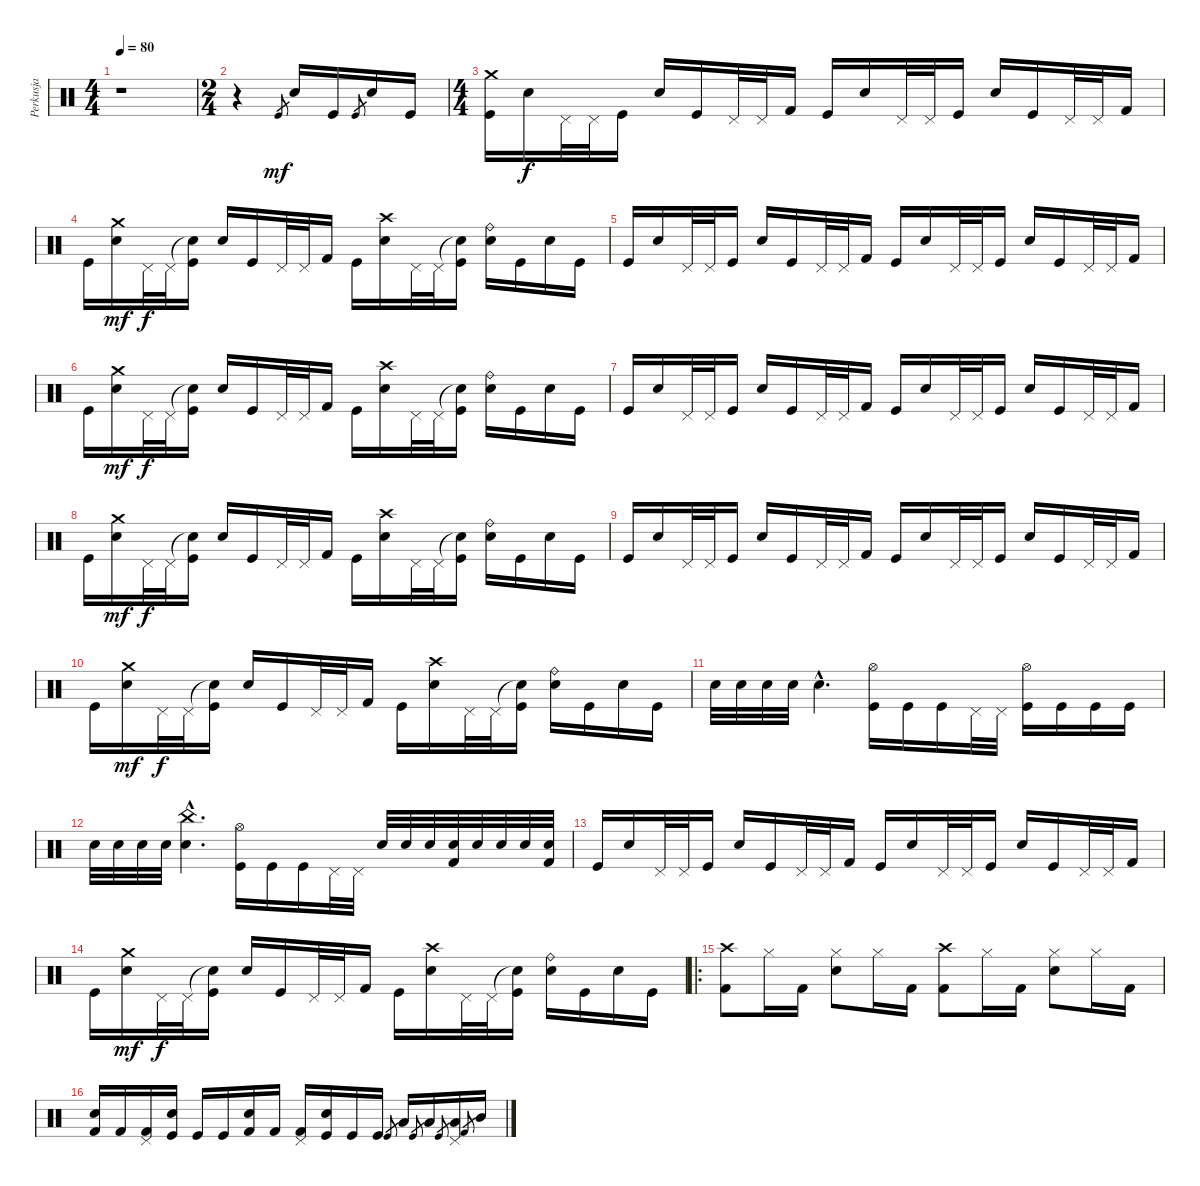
\track ("Perkusja" "Perkusja") {instrument percussion}
\staff {score}
\articulation defaults
\ts (4 4)
\tempo 80
\clef neutral
\ks c
r.1{dy mf} |
\ts (2 4)
r.4 "Kick (hit)".8{gr} "Electric Snare (hit)".16 "Kick (hit)".16 "Kick (hit)".8{gr} "Electric Snare (hit)".16 "Kick (hit)".16 |
\ts (4 4)
("Kick (hit)" "Crash medium (hit)").16 "Electric Snare (hit)".16{dy f} "Pedal Hi-Hat (hit)".32 "Pedal Hi-Hat (hit)".32 "Kick (hit)".16 "Electric Snare (hit)".16 "Kick (hit)".16 "Pedal Hi-Hat (hit)".32 "Pedal Hi-Hat (hit)".32 "Kick (hit) 2".16 "Kick (hit)".16 "Electric Snare (hit)".16 "Pedal Hi-Hat (hit)".32 "Pedal Hi-Hat (hit)".32 "Kick (hit)".16 "Electric Snare (hit)".16 "Kick (hit)".16 "Pedal Hi-Hat (hit)".32 "Pedal Hi-Hat (hit)".32 "Kick (hit) 2".16 |
"Kick (hit)".16 ("Electric Snare (hit)" "Crash medium (hit)").16{dy mf} "Pedal Hi-Hat (hit)".32{dy f} "Pedal Hi-Hat (hit)".32 ("Snare (hit)"{t} "Kick (hit)").16 "Electric Snare (hit)".16 "Kick (hit)".16 "Pedal Hi-Hat (hit)".32 "Pedal Hi-Hat (hit)".32 "Kick (hit) 2".16 "Kick (hit)".16 ("Electric Snare (hit)" "Crash high (hit)").16 "Pedal Hi-Hat (hit)".32 "Pedal Hi-Hat (hit)".32 ("Snare (hit)"{t} "Kick (hit)").16 ("Electric Snare (hit)" "Ride (bell)").16 "Kick (hit)".16 "Electric Snare (hit)".16 "Kick (hit)".16 |
"Kick (hit)".16 "Electric Snare (hit)".16 "Pedal Hi-Hat (hit)".32 "Pedal Hi-Hat (hit)".32 "Kick (hit)".16 "Electric Snare (hit)".16 "Kick (hit)".16 "Pedal Hi-Hat (hit)".32 "Pedal Hi-Hat (hit)".32 "Kick (hit) 2".16 "Kick (hit)".16 "Electric Snare (hit)".16 "Pedal Hi-Hat (hit)".32 "Pedal Hi-Hat (hit)".32 "Kick (hit)".16 "Electric Snare (hit)".16 "Kick (hit)".16 "Pedal Hi-Hat (hit)".32 "Pedal Hi-Hat (hit)".32 "Kick (hit) 2".16 |
"Kick (hit)".16 ("Electric Snare (hit)" "Crash medium (hit)").16{dy mf} "Pedal Hi-Hat (hit)".32{dy f} "Pedal Hi-Hat (hit)".32 ("Snare (hit)"{t} "Kick (hit)").16 "Electric Snare (hit)".16 "Kick (hit)".16 "Pedal Hi-Hat (hit)".32 "Pedal Hi-Hat (hit)".32 "Kick (hit) 2".16 "Kick (hit)".16 ("Electric Snare (hit)" "Crash high (hit)").16 "Pedal Hi-Hat (hit)".32 "Pedal Hi-Hat (hit)".32 ("Snare (hit)"{t} "Kick (hit)").16 ("Electric Snare (hit)" "Ride (bell)").16 "Kick (hit)".16 "Electric Snare (hit)".16 "Kick (hit)".16 |
"Kick (hit)".16 "Electric Snare (hit)".16 "Pedal Hi-Hat (hit)".32 "Pedal Hi-Hat (hit)".32 "Kick (hit)".16 "Electric Snare (hit)".16 "Kick (hit)".16 "Pedal Hi-Hat (hit)".32 "Pedal Hi-Hat (hit)".32 "Kick (hit) 2".16 "Kick (hit)".16 "Electric Snare (hit)".16 "Pedal Hi-Hat (hit)".32 "Pedal Hi-Hat (hit)".32 "Kick (hit)".16 "Electric Snare (hit)".16 "Kick (hit)".16 "Pedal Hi-Hat (hit)".32 "Pedal Hi-Hat (hit)".32 "Kick (hit) 2".16 |
"Kick (hit)".16 ("Electric Snare (hit)" "Crash medium (hit)").16{dy mf} "Pedal Hi-Hat (hit)".32{dy f} "Pedal Hi-Hat (hit)".32 ("Snare (hit)"{t} "Kick (hit)").16 "Electric Snare (hit)".16 "Kick (hit)".16 "Pedal Hi-Hat (hit)".32 "Pedal Hi-Hat (hit)".32 "Kick (hit) 2".16 "Kick (hit)".16 ("Electric Snare (hit)" "Crash high (hit)").16 "Pedal Hi-Hat (hit)".32 "Pedal Hi-Hat (hit)".32 ("Snare (hit)"{t} "Kick (hit)").16 ("Electric Snare (hit)" "Ride (bell)").16 "Kick (hit)".16 "Electric Snare (hit)".16 "Kick (hit)".16 |
"Kick (hit)".16 "Electric Snare (hit)".16 "Pedal Hi-Hat (hit)".32 "Pedal Hi-Hat (hit)".32 "Kick (hit)".16 "Electric Snare (hit)".16 "Kick (hit)".16 "Pedal Hi-Hat (hit)".32 "Pedal Hi-Hat (hit)".32 "Kick (hit) 2".16 "Kick (hit)".16 "Electric Snare (hit)".16 "Pedal Hi-Hat (hit)".32 "Pedal Hi-Hat (hit)".32 "Kick (hit)".16 "Electric Snare (hit)".16 "Kick (hit)".16 "Pedal Hi-Hat (hit)".32 "Pedal Hi-Hat (hit)".32 "Kick (hit) 2".16 |
"Kick (hit)".16 ("Electric Snare (hit)" "Crash medium (hit)").16{dy mf} "Pedal Hi-Hat (hit)".32{dy f} "Pedal Hi-Hat (hit)".32 ("Snare (hit)"{t} "Kick (hit)").16 "Electric Snare (hit)".16 "Kick (hit)".16 "Pedal Hi-Hat (hit)".32 "Pedal Hi-Hat (hit)".32 "Kick (hit) 2".16 "Kick (hit)".16 ("Electric Snare (hit)" "Crash high (hit)").16 "Pedal Hi-Hat (hit)".32 "Pedal Hi-Hat (hit)".32 ("Snare (hit)"{t} "Kick (hit)").16 ("Electric Snare (hit)" "Ride (bell)").16 "Kick (hit)".16 "Electric Snare (hit)".16 "Kick (hit)".16 |
"Snare (hit) 2".32 "Electric Snare (hit)".32 "Electric Snare (hit)".32 "Electric Snare (hit)".32 "Electric Snare (hit)"{hac}.4{d} ("Kick (hit)" "Hi-Hat (open)").16 "Kick (hit)".16 "Kick (hit)".16 "Pedal Hi-Hat (hit)".32 "Pedal Hi-Hat (hit)".32 ("Kick (hit)" "Hi-Hat (open)").16 "Kick (hit)".16 "Kick (hit)".16 "Kick (hit)".16 |
"Snare (hit) 2".32 "Electric Snare (hit)".32 "Electric Snare (hit)".32 "Electric Snare (hit)".32 ("Electric Snare (hit)"{hac} "China (hit)"{hac}).4{d} ("Kick (hit)" "Hi-Hat (open)").16 "Kick (hit)".16 "Kick (hit)".16 "Pedal Hi-Hat (hit)".32 "Pedal Hi-Hat (hit)".32 "Snare (hit) 2".32 "Electric Snare (hit)".32 "Electric Snare (hit)".32 ("Electric Snare (hit)" "Kick (hit) 2").32 "Snare (hit) 2".32 "Electric Snare (hit)".32 "Electric Snare (hit)".32 ("Electric Snare (hit)" "Kick (hit) 2").32 |
"Kick (hit)".16 "Electric Snare (hit)".16 "Pedal Hi-Hat (hit)".32 "Pedal Hi-Hat (hit)".32 "Kick (hit)".16 "Electric Snare (hit)".16 "Kick (hit)".16 "Pedal Hi-Hat (hit)".32 "Pedal Hi-Hat (hit)".32 "Kick (hit) 2".16 "Kick (hit)".16 "Electric Snare (hit)".16 "Pedal Hi-Hat (hit)".32 "Pedal Hi-Hat (hit)".32 "Kick (hit)".16 "Electric Snare (hit)".16 "Kick (hit)".16 "Pedal Hi-Hat (hit)".32 "Pedal Hi-Hat (hit)".32 "Kick (hit) 2".16 |
"Kick (hit)".16 ("Electric Snare (hit)" "Crash medium (hit)").16{dy mf} "Pedal Hi-Hat (hit)".32{dy f} "Pedal Hi-Hat (hit)".32 ("Snare (hit)"{t} "Kick (hit)").16 "Electric Snare (hit)".16 "Kick (hit)".16 "Pedal Hi-Hat (hit)".32 "Pedal Hi-Hat (hit)".32 "Kick (hit) 2".16 "Kick (hit)".16 ("Electric Snare (hit)" "Crash high (hit)").16 "Pedal Hi-Hat (hit)".32 "Pedal Hi-Hat (hit)".32 ("Snare (hit)"{t} "Kick (hit)").16 ("Electric Snare (hit)" "Ride (bell)").16 "Kick (hit)".16 "Electric Snare (hit)".16 "Kick (hit)".16 |
\ro
("Kick (hit) 2" "Crash high (hit)").8 "Hi-Hat (closed)".16 "Kick (hit) 2".16 ("Snare (hit) 2" "Hi-Hat (closed)").8 "Hi-Hat (closed)".16 "Kick (hit) 2".16 ("Kick (hit) 2" "Crash high (hit)").8 "Hi-Hat (closed)".16 "Kick (hit) 2".16 ("Snare (hit) 2" "Hi-Hat (closed)").8 "Hi-Hat (closed)".16 "Kick (hit) 2".16 |
("Kick (hit) 2" "Electric Snare (hit)").16 "Kick (hit) 2".16 ("Kick (hit) 2" "Pedal Hi-Hat (hit)").16 ("Kick (hit)" "Snare (hit) 2").16 "Kick (hit)".16 "Kick (hit)".16 ("Kick (hit) 2" "Electric Snare (hit)").16 "Kick (hit) 2".16 ("Kick (hit) 2" "Pedal Hi-Hat (hit)").16 ("Kick (hit)" "Snare (hit) 2").16 "Kick (hit)".16 "Kick (hit)".16 "Kick (hit)".8{gr} "Low Tom (hit)".16 "Kick (hit)".8{gr} "Low Tom (hit)".16 "Kick (hit)".8{gr} ("Low Tom (hit)" "Pedal Hi-Hat (hit)").16 "Kick (hit) 2".8{gr} "Mid Tom (hit)".16
